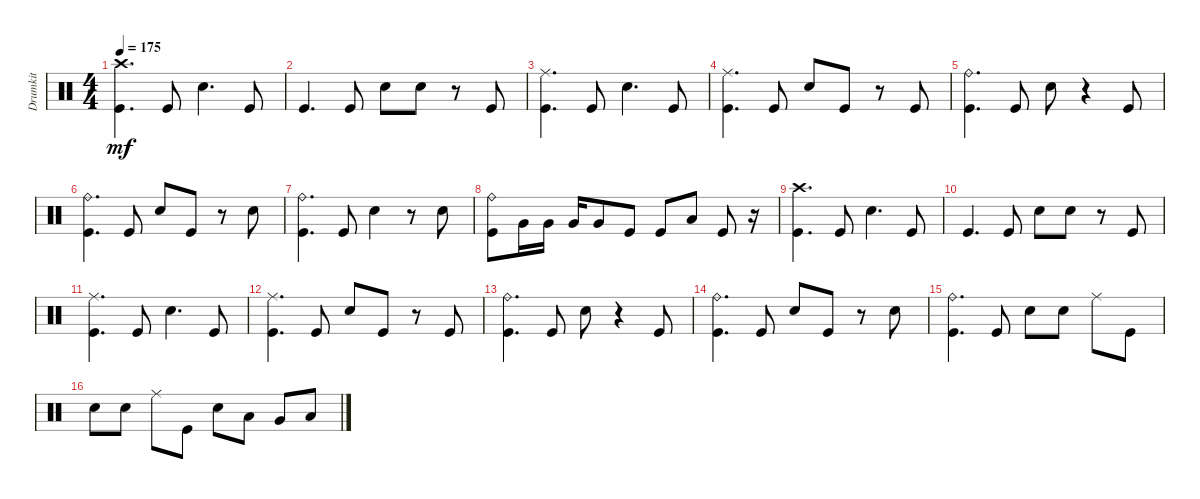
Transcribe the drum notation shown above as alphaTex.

\track ("Drumkit" "Drumkit") {instrument percussion}
\staff {score}
\articulation defaults
\ts (4 4)
\tempo 175
\clef neutral
\ks c
("Kick (hit)" "Crash high (hit)").4{d dy mf} "Kick (hit)".8 "Snare (hit) 2".4{d} "Kick (hit)".8 |
"Kick (hit)".4{d} "Kick (hit)".8 "Snare (hit) 2".8 "Snare (hit) 2".8 r.8 "Kick (hit)".8 |
("Kick (hit)" "Ride (middle)").4{d} "Kick (hit)".8 "Snare (hit) 2".4{d} "Kick (hit)".8 |
("Kick (hit)" "Ride (middle)").4{d} "Kick (hit)".8 "Snare (hit) 2".8 "Kick (hit)".8 r.8 "Kick (hit)".8 |
("Kick (hit)" "Ride (bell)").4{d} "Kick (hit)".8 "Snare (hit) 2".8 r.4 "Kick (hit)".8 |
("Kick (hit)" "Ride (bell)").4{d} "Kick (hit)".8 "Snare (hit) 2".8 "Kick (hit)".8 r.8 "Snare (hit) 2".8 |
("Kick (hit)" "Ride (bell)").4{d} "Kick (hit)".8 "Snare (hit) 2".4 r.8 "Snare (hit) 2".8 |
("Kick (hit)" "Ride (bell)").8 "Very Low Tom (hit)".16 "Very Low Tom (hit)".16 "Very Low Tom (hit)".16 "Very Low Tom (hit)".8 "Kick (hit)".8 "Kick (hit)".8 "Low Tom (hit)".8 "Kick (hit)".8 r.16 |
("Kick (hit)" "Crash high (hit)").4{d} "Kick (hit)".8 "Snare (hit) 2".4{d} "Kick (hit)".8 |
"Kick (hit)".4{d} "Kick (hit)".8 "Snare (hit) 2".8 "Snare (hit) 2".8 r.8 "Kick (hit)".8 |
("Kick (hit)" "Ride (middle)").4{d} "Kick (hit)".8 "Snare (hit) 2".4{d} "Kick (hit)".8 |
("Kick (hit)" "Ride (middle)").4{d} "Kick (hit)".8 "Snare (hit) 2".8 "Kick (hit)".8 r.8 "Kick (hit)".8 |
("Kick (hit)" "Ride (bell)").4{d} "Kick (hit)".8 "Snare (hit) 2".8 r.4 "Kick (hit)".8 |
("Kick (hit)" "Ride (bell)").4{d} "Kick (hit)".8 "Snare (hit) 2".8 "Kick (hit)".8 r.8 "Snare (hit) 2".8 |
("Kick (hit)" "Ride (bell)").4{d} "Kick (hit)".8 "Snare (hit) 2".8 "Snare (hit) 2".8 "Ride (middle)".8 "Kick (hit)".8 |
"Snare (hit) 2".8 "Snare (hit) 2".8 "Ride (middle)".8 "Kick (hit)".8 "Snare (hit) 2".8 "Low Floor Tom (hit)".8 "Very Low Tom (hit)".8 "Low Tom (hit)".8
